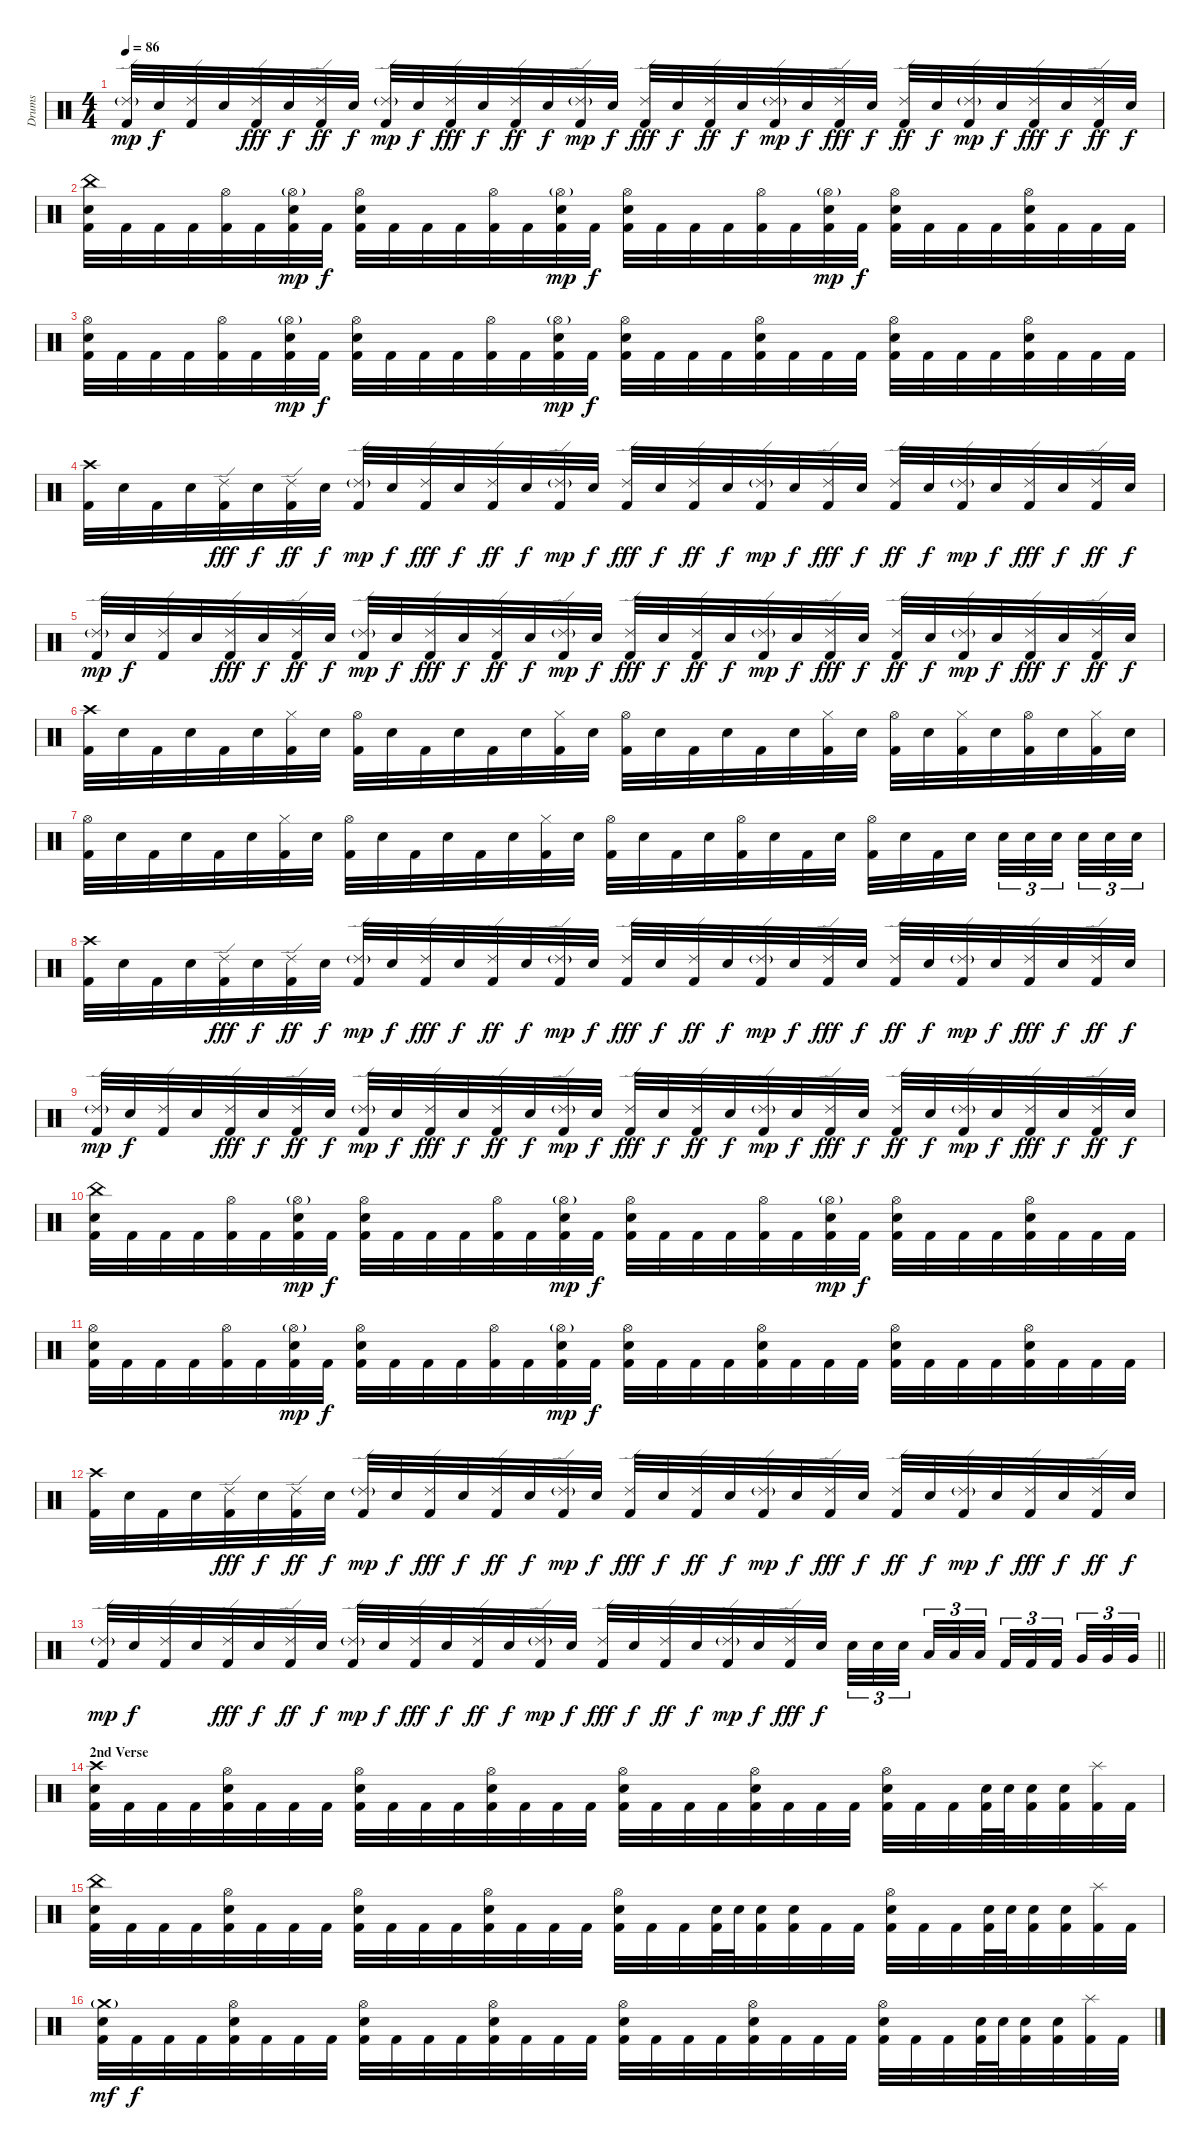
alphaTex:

\track ("Drums" "Drums") {instrument percussion}
\staff {score}
\articulation defaults
\ts (4 4)
\tempo 86
\clef neutral
\ks c
("Ride (edge) 2"{g} "Kick (hit) 2").32{dy mp} "Snare (hit) 2".32{dy f} ("Ride (edge) 2" "Kick (hit) 2").32 "Snare (hit) 2".32 ("Ride (edge) 2" "Kick (hit) 2").32{dy fff} "Snare (hit) 2".32{dy f} ("Ride (edge) 2" "Kick (hit) 2").32{dy ff} "Snare (hit) 2".32{dy f} ("Ride (edge) 2"{g} "Kick (hit) 2").32{dy mp} "Snare (hit) 2".32{dy f} ("Ride (edge) 2" "Kick (hit) 2").32{dy fff} "Snare (hit) 2".32{dy f} ("Ride (edge) 2" "Kick (hit) 2").32{dy ff} "Snare (hit) 2".32{dy f} ("Ride (edge) 2"{g} "Kick (hit) 2").32{dy mp} "Snare (hit) 2".32{dy f} ("Ride (edge) 2" "Kick (hit) 2").32{dy fff} "Snare (hit) 2".32{dy f} ("Ride (edge) 2" "Kick (hit) 2").32{dy ff} "Snare (hit) 2".32{dy f} ("Ride (edge) 2"{g} "Kick (hit) 2").32{dy mp} "Snare (hit) 2".32{dy f} ("Ride (edge) 2" "Kick (hit) 2").32{dy fff} "Snare (hit) 2".32{dy f} ("Ride (edge) 2" "Kick (hit) 2").32{dy ff} "Snare (hit) 2".32{dy f} ("Ride (edge) 2"{g} "Kick (hit) 2").32{dy mp} "Snare (hit) 2".32{dy f} ("Ride (edge) 2" "Kick (hit) 2").32{dy fff} "Snare (hit) 2".32{dy f} ("Ride (edge) 2" "Kick (hit) 2").32{dy ff} "Snare (hit) 2".32{dy f} |
("China (hit)" "Snare (hit) 2" "Kick (hit) 2").32 "Kick (hit) 2".32 "Kick (hit) 2".32 "Kick (hit) 2".32 ("Hi-Hat (open)" "Kick (hit) 2").32 "Kick (hit) 2".32 ("Hi-Hat (open)"{g} "Snare (hit) 2" "Kick (hit) 2").32{dy mp} "Kick (hit) 2".32{dy f} ("Hi-Hat (open)" "Snare (hit) 2" "Kick (hit) 2").32 "Kick (hit) 2".32 "Kick (hit) 2".32 "Kick (hit) 2".32 ("Hi-Hat (open)" "Kick (hit) 2").32 "Kick (hit) 2".32 ("Hi-Hat (open)"{g} "Snare (hit) 2" "Kick (hit) 2").32{dy mp} "Kick (hit) 2".32{dy f} ("Hi-Hat (open)" "Snare (hit) 2" "Kick (hit) 2").32 "Kick (hit) 2".32 "Kick (hit) 2".32 "Kick (hit) 2".32 ("Hi-Hat (open)" "Kick (hit) 2").32 "Kick (hit) 2".32 ("Hi-Hat (open)"{g} "Snare (hit) 2" "Kick (hit) 2").32{dy mp} "Kick (hit) 2".32{dy f} ("Hi-Hat (open)" "Snare (hit) 2" "Kick (hit) 2").32 "Kick (hit) 2".32 "Kick (hit) 2".32 "Kick (hit) 2".32 ("Hi-Hat (open)" "Snare (hit) 2" "Kick (hit) 2").32 "Kick (hit) 2".32 "Kick (hit) 2".32 "Kick (hit) 2".32 |
("Hi-Hat (open)" "Snare (hit) 2" "Kick (hit) 2").32 "Kick (hit) 2".32 "Kick (hit) 2".32 "Kick (hit) 2".32 ("Hi-Hat (open)" "Kick (hit) 2").32 "Kick (hit) 2".32 ("Hi-Hat (open)"{g} "Snare (hit) 2" "Kick (hit) 2").32{dy mp} "Kick (hit) 2".32{dy f} ("Hi-Hat (open)" "Snare (hit) 2" "Kick (hit) 2").32 "Kick (hit) 2".32 "Kick (hit) 2".32 "Kick (hit) 2".32 ("Hi-Hat (open)" "Kick (hit) 2").32 "Kick (hit) 2".32 ("Hi-Hat (open)"{g} "Snare (hit) 2" "Kick (hit) 2").32{dy mp} "Kick (hit) 2".32{dy f} ("Hi-Hat (open)" "Snare (hit) 2" "Kick (hit) 2").32 "Kick (hit) 2".32 "Kick (hit) 2".32 "Kick (hit) 2".32 ("Hi-Hat (open)" "Snare (hit) 2" "Kick (hit) 2").32 "Kick (hit) 2".32 "Kick (hit) 2".32 "Kick (hit) 2".32 ("Hi-Hat (open)" "Snare (hit) 2" "Kick (hit) 2").32 "Kick (hit) 2".32 "Kick (hit) 2".32 "Kick (hit) 2".32 ("Hi-Hat (open)" "Snare (hit) 2" "Kick (hit) 2").32 "Kick (hit) 2".32 "Kick (hit) 2".32 "Kick (hit) 2".32 |
("Crash high (hit)" "Kick (hit) 2").32 "Snare (hit) 2".32 "Kick (hit) 2".32 "Snare (hit) 2".32 ("Ride (edge) 2" "Kick (hit) 2").32{dy fff} "Snare (hit) 2".32{dy f} ("Ride (edge) 2" "Kick (hit) 2").32{dy ff} "Snare (hit) 2".32{dy f} ("Ride (edge) 2"{g} "Kick (hit) 2").32{dy mp} "Snare (hit) 2".32{dy f} ("Ride (edge) 2" "Kick (hit) 2").32{dy fff} "Snare (hit) 2".32{dy f} ("Ride (edge) 2" "Kick (hit) 2").32{dy ff} "Snare (hit) 2".32{dy f} ("Ride (edge) 2"{g} "Kick (hit) 2").32{dy mp} "Snare (hit) 2".32{dy f} ("Ride (edge) 2" "Kick (hit) 2").32{dy fff} "Snare (hit) 2".32{dy f} ("Ride (edge) 2" "Kick (hit) 2").32{dy ff} "Snare (hit) 2".32{dy f} ("Ride (edge) 2"{g} "Kick (hit) 2").32{dy mp} "Snare (hit) 2".32{dy f} ("Ride (edge) 2" "Kick (hit) 2").32{dy fff} "Snare (hit) 2".32{dy f} ("Ride (edge) 2" "Kick (hit) 2").32{dy ff} "Snare (hit) 2".32{dy f} ("Ride (edge) 2"{g} "Kick (hit) 2").32{dy mp} "Snare (hit) 2".32{dy f} ("Ride (edge) 2" "Kick (hit) 2").32{dy fff} "Snare (hit) 2".32{dy f} ("Ride (edge) 2" "Kick (hit) 2").32{dy ff} "Snare (hit) 2".32{dy f} |
("Ride (edge) 2"{g} "Kick (hit) 2").32{dy mp} "Snare (hit) 2".32{dy f} ("Ride (edge) 2" "Kick (hit) 2").32 "Snare (hit) 2".32 ("Ride (edge) 2" "Kick (hit) 2").32{dy fff} "Snare (hit) 2".32{dy f} ("Ride (edge) 2" "Kick (hit) 2").32{dy ff} "Snare (hit) 2".32{dy f} ("Ride (edge) 2"{g} "Kick (hit) 2").32{dy mp} "Snare (hit) 2".32{dy f} ("Ride (edge) 2" "Kick (hit) 2").32{dy fff} "Snare (hit) 2".32{dy f} ("Ride (edge) 2" "Kick (hit) 2").32{dy ff} "Snare (hit) 2".32{dy f} ("Ride (edge) 2"{g} "Kick (hit) 2").32{dy mp} "Snare (hit) 2".32{dy f} ("Ride (edge) 2" "Kick (hit) 2").32{dy fff} "Snare (hit) 2".32{dy f} ("Ride (edge) 2" "Kick (hit) 2").32{dy ff} "Snare (hit) 2".32{dy f} ("Ride (edge) 2"{g} "Kick (hit) 2").32{dy mp} "Snare (hit) 2".32{dy f} ("Ride (edge) 2" "Kick (hit) 2").32{dy fff} "Snare (hit) 2".32{dy f} ("Ride (edge) 2" "Kick (hit) 2").32{dy ff} "Snare (hit) 2".32{dy f} ("Ride (edge) 2"{g} "Kick (hit) 2").32{dy mp} "Snare (hit) 2".32{dy f} ("Ride (edge) 2" "Kick (hit) 2").32{dy fff} "Snare (hit) 2".32{dy f} ("Ride (edge) 2" "Kick (hit) 2").32{dy ff} "Snare (hit) 2".32{dy f} |
("Crash high (hit)" "Kick (hit) 2").32 "Snare (hit) 2".32 "Kick (hit) 2".32 "Snare (hit) 2".32 "Kick (hit) 2".32 "Snare (hit) 2".32 ("Hi-Hat (closed)" "Kick (hit) 2").32 "Snare (hit) 2".32 ("Hi-Hat (open)" "Kick (hit) 2").32 "Snare (hit) 2".32 "Kick (hit) 2".32 "Snare (hit) 2".32 "Kick (hit) 2".32 "Snare (hit) 2".32 ("Hi-Hat (closed)" "Kick (hit) 2").32 "Snare (hit) 2".32 ("Hi-Hat (open)" "Kick (hit) 2").32 "Snare (hit) 2".32 "Kick (hit) 2".32 "Snare (hit) 2".32 "Kick (hit) 2".32 "Snare (hit) 2".32 ("Hi-Hat (closed)" "Kick (hit) 2").32 "Snare (hit) 2".32 ("Hi-Hat (open)" "Kick (hit) 2").32 "Snare (hit) 2".32 ("Hi-Hat (closed)" "Kick (hit) 2").32 "Snare (hit) 2".32 ("Hi-Hat (open)" "Kick (hit) 2").32 "Snare (hit) 2".32 ("Hi-Hat (closed)" "Kick (hit) 2").32 "Snare (hit) 2".32 |
("Hi-Hat (open)" "Kick (hit) 2").32 "Snare (hit) 2".32 "Kick (hit) 2".32 "Snare (hit) 2".32 "Kick (hit) 2".32 "Snare (hit) 2".32 ("Hi-Hat (closed)" "Kick (hit) 2").32 "Snare (hit) 2".32 ("Hi-Hat (open)" "Kick (hit) 2").32 "Snare (hit) 2".32 "Kick (hit) 2".32 "Snare (hit) 2".32 "Kick (hit) 2".32 "Snare (hit) 2".32 ("Hi-Hat (closed)" "Kick (hit) 2").32 "Snare (hit) 2".32 ("Hi-Hat (open)" "Kick (hit) 2").32 "Snare (hit) 2".32 "Kick (hit) 2".32 "Snare (hit) 2".32 ("Hi-Hat (open)" "Kick (hit) 2").32 "Snare (hit) 2".32 "Kick (hit) 2".32 "Snare (hit) 2".32 ("Hi-Hat (open)" "Kick (hit) 2").32 "Snare (hit) 2".32 "Kick (hit) 2".32 "Snare (hit) 2".32{beam splitsecondary} "Snare (hit) 2".32{tu (3 2)} "Snare (hit) 2".32{tu (3 2)} "Snare (hit) 2".32{tu (3 2) beam splitsecondary} "Snare (hit) 2".32{tu (3 2)} "Snare (hit) 2".32{tu (3 2)} "Snare (hit) 2".32{tu (3 2)} |
("Crash high (hit)" "Kick (hit) 2").32 "Snare (hit) 2".32 "Kick (hit) 2".32 "Snare (hit) 2".32 ("Ride (edge) 2" "Kick (hit) 2").32{dy fff} "Snare (hit) 2".32{dy f} ("Ride (edge) 2" "Kick (hit) 2").32{dy ff} "Snare (hit) 2".32{dy f} ("Ride (edge) 2"{g} "Kick (hit) 2").32{dy mp} "Snare (hit) 2".32{dy f} ("Ride (edge) 2" "Kick (hit) 2").32{dy fff} "Snare (hit) 2".32{dy f} ("Ride (edge) 2" "Kick (hit) 2").32{dy ff} "Snare (hit) 2".32{dy f} ("Ride (edge) 2"{g} "Kick (hit) 2").32{dy mp} "Snare (hit) 2".32{dy f} ("Ride (edge) 2" "Kick (hit) 2").32{dy fff} "Snare (hit) 2".32{dy f} ("Ride (edge) 2" "Kick (hit) 2").32{dy ff} "Snare (hit) 2".32{dy f} ("Ride (edge) 2"{g} "Kick (hit) 2").32{dy mp} "Snare (hit) 2".32{dy f} ("Ride (edge) 2" "Kick (hit) 2").32{dy fff} "Snare (hit) 2".32{dy f} ("Ride (edge) 2" "Kick (hit) 2").32{dy ff} "Snare (hit) 2".32{dy f} ("Ride (edge) 2"{g} "Kick (hit) 2").32{dy mp} "Snare (hit) 2".32{dy f} ("Ride (edge) 2" "Kick (hit) 2").32{dy fff} "Snare (hit) 2".32{dy f} ("Ride (edge) 2" "Kick (hit) 2").32{dy ff} "Snare (hit) 2".32{dy f} |
("Ride (edge) 2"{g} "Kick (hit) 2").32{dy mp} "Snare (hit) 2".32{dy f} ("Ride (edge) 2" "Kick (hit) 2").32 "Snare (hit) 2".32 ("Ride (edge) 2" "Kick (hit) 2").32{dy fff} "Snare (hit) 2".32{dy f} ("Ride (edge) 2" "Kick (hit) 2").32{dy ff} "Snare (hit) 2".32{dy f} ("Ride (edge) 2"{g} "Kick (hit) 2").32{dy mp} "Snare (hit) 2".32{dy f} ("Ride (edge) 2" "Kick (hit) 2").32{dy fff} "Snare (hit) 2".32{dy f} ("Ride (edge) 2" "Kick (hit) 2").32{dy ff} "Snare (hit) 2".32{dy f} ("Ride (edge) 2"{g} "Kick (hit) 2").32{dy mp} "Snare (hit) 2".32{dy f} ("Ride (edge) 2" "Kick (hit) 2").32{dy fff} "Snare (hit) 2".32{dy f} ("Ride (edge) 2" "Kick (hit) 2").32{dy ff} "Snare (hit) 2".32{dy f} ("Ride (edge) 2"{g} "Kick (hit) 2").32{dy mp} "Snare (hit) 2".32{dy f} ("Ride (edge) 2" "Kick (hit) 2").32{dy fff} "Snare (hit) 2".32{dy f} ("Ride (edge) 2" "Kick (hit) 2").32{dy ff} "Snare (hit) 2".32{dy f} ("Ride (edge) 2"{g} "Kick (hit) 2").32{dy mp} "Snare (hit) 2".32{dy f} ("Ride (edge) 2" "Kick (hit) 2").32{dy fff} "Snare (hit) 2".32{dy f} ("Ride (edge) 2" "Kick (hit) 2").32{dy ff} "Snare (hit) 2".32{dy f} |
("China (hit)" "Snare (hit) 2" "Kick (hit) 2").32 "Kick (hit) 2".32 "Kick (hit) 2".32 "Kick (hit) 2".32 ("Hi-Hat (open)" "Kick (hit) 2").32 "Kick (hit) 2".32 ("Hi-Hat (open)"{g} "Snare (hit) 2" "Kick (hit) 2").32{dy mp} "Kick (hit) 2".32{dy f} ("Hi-Hat (open)" "Snare (hit) 2" "Kick (hit) 2").32 "Kick (hit) 2".32 "Kick (hit) 2".32 "Kick (hit) 2".32 ("Hi-Hat (open)" "Kick (hit) 2").32 "Kick (hit) 2".32 ("Hi-Hat (open)"{g} "Snare (hit) 2" "Kick (hit) 2").32{dy mp} "Kick (hit) 2".32{dy f} ("Hi-Hat (open)" "Snare (hit) 2" "Kick (hit) 2").32 "Kick (hit) 2".32 "Kick (hit) 2".32 "Kick (hit) 2".32 ("Hi-Hat (open)" "Kick (hit) 2").32 "Kick (hit) 2".32 ("Hi-Hat (open)"{g} "Snare (hit) 2" "Kick (hit) 2").32{dy mp} "Kick (hit) 2".32{dy f} ("Hi-Hat (open)" "Snare (hit) 2" "Kick (hit) 2").32 "Kick (hit) 2".32 "Kick (hit) 2".32 "Kick (hit) 2".32 ("Hi-Hat (open)" "Snare (hit) 2" "Kick (hit) 2").32 "Kick (hit) 2".32 "Kick (hit) 2".32 "Kick (hit) 2".32 |
("Hi-Hat (open)" "Snare (hit) 2" "Kick (hit) 2").32 "Kick (hit) 2".32 "Kick (hit) 2".32 "Kick (hit) 2".32 ("Hi-Hat (open)" "Kick (hit) 2").32 "Kick (hit) 2".32 ("Hi-Hat (open)"{g} "Snare (hit) 2" "Kick (hit) 2").32{dy mp} "Kick (hit) 2".32{dy f} ("Hi-Hat (open)" "Snare (hit) 2" "Kick (hit) 2").32 "Kick (hit) 2".32 "Kick (hit) 2".32 "Kick (hit) 2".32 ("Hi-Hat (open)" "Kick (hit) 2").32 "Kick (hit) 2".32 ("Hi-Hat (open)"{g} "Snare (hit) 2" "Kick (hit) 2").32{dy mp} "Kick (hit) 2".32{dy f} ("Hi-Hat (open)" "Snare (hit) 2" "Kick (hit) 2").32 "Kick (hit) 2".32 "Kick (hit) 2".32 "Kick (hit) 2".32 ("Hi-Hat (open)" "Snare (hit) 2" "Kick (hit) 2").32 "Kick (hit) 2".32 "Kick (hit) 2".32 "Kick (hit) 2".32 ("Hi-Hat (open)" "Snare (hit) 2" "Kick (hit) 2").32 "Kick (hit) 2".32 "Kick (hit) 2".32 "Kick (hit) 2".32 ("Hi-Hat (open)" "Snare (hit) 2" "Kick (hit) 2").32 "Kick (hit) 2".32 "Kick (hit) 2".32 "Kick (hit) 2".32 |
("Crash high (hit)" "Kick (hit) 2").32 "Snare (hit) 2".32 "Kick (hit) 2".32 "Snare (hit) 2".32 ("Ride (edge) 2" "Kick (hit) 2").32{dy fff} "Snare (hit) 2".32{dy f} ("Ride (edge) 2" "Kick (hit) 2").32{dy ff} "Snare (hit) 2".32{dy f} ("Ride (edge) 2"{g} "Kick (hit) 2").32{dy mp} "Snare (hit) 2".32{dy f} ("Ride (edge) 2" "Kick (hit) 2").32{dy fff} "Snare (hit) 2".32{dy f} ("Ride (edge) 2" "Kick (hit) 2").32{dy ff} "Snare (hit) 2".32{dy f} ("Ride (edge) 2"{g} "Kick (hit) 2").32{dy mp} "Snare (hit) 2".32{dy f} ("Ride (edge) 2" "Kick (hit) 2").32{dy fff} "Snare (hit) 2".32{dy f} ("Ride (edge) 2" "Kick (hit) 2").32{dy ff} "Snare (hit) 2".32{dy f} ("Ride (edge) 2"{g} "Kick (hit) 2").32{dy mp} "Snare (hit) 2".32{dy f} ("Ride (edge) 2" "Kick (hit) 2").32{dy fff} "Snare (hit) 2".32{dy f} ("Ride (edge) 2" "Kick (hit) 2").32{dy ff} "Snare (hit) 2".32{dy f} ("Ride (edge) 2"{g} "Kick (hit) 2").32{dy mp} "Snare (hit) 2".32{dy f} ("Ride (edge) 2" "Kick (hit) 2").32{dy fff} "Snare (hit) 2".32{dy f} ("Ride (edge) 2" "Kick (hit) 2").32{dy ff} "Snare (hit) 2".32{dy f} |
\barLineRight lightlight
("Ride (edge) 2"{g} "Kick (hit) 2").32{dy mp} "Snare (hit) 2".32{dy f} ("Ride (edge) 2" "Kick (hit) 2").32 "Snare (hit) 2".32 ("Ride (edge) 2" "Kick (hit) 2").32{dy fff} "Snare (hit) 2".32{dy f} ("Ride (edge) 2" "Kick (hit) 2").32{dy ff} "Snare (hit) 2".32{dy f} ("Ride (edge) 2"{g} "Kick (hit) 2").32{dy mp} "Snare (hit) 2".32{dy f} ("Ride (edge) 2" "Kick (hit) 2").32{dy fff} "Snare (hit) 2".32{dy f} ("Ride (edge) 2" "Kick (hit) 2").32{dy ff} "Snare (hit) 2".32{dy f} ("Ride (edge) 2"{g} "Kick (hit) 2").32{dy mp} "Snare (hit) 2".32{dy f} ("Ride (edge) 2" "Kick (hit) 2").32{dy fff} "Snare (hit) 2".32{dy f} ("Ride (edge) 2" "Kick (hit) 2").32{dy ff} "Snare (hit) 2".32{dy f} ("Ride (edge) 2"{g} "Kick (hit) 2").32{dy mp} "Snare (hit) 2".32{dy f} ("Ride (edge) 2" "Kick (hit) 2").32{dy fff} "Snare (hit) 2".32{dy f} "Snare (hit) 2".32{tu (3 2)} "Snare (hit) 2".32{tu (3 2)} "Snare (hit) 2".32{tu (3 2) beam splitsecondary} "Low Tom (hit)".32{tu (3 2)} "Low Tom (hit)".32{tu (3 2)} "Low Tom (hit)".32{tu (3 2) beam splitsecondary} "Kick (hit) 2".32{tu (3 2)} "Kick (hit) 2".32{tu (3 2)} "Kick (hit) 2".32{tu (3 2) beam splitsecondary} "Very Low Tom (hit)".32{tu (3 2)} "Very Low Tom (hit)".32{tu (3 2)} "Very Low Tom (hit)".32{tu (3 2)} |
\section ("" "2nd Verse")
("Crash high (hit)" "Snare (hit) 2" "Kick (hit) 2").32 "Kick (hit) 2".32 "Kick (hit) 2".32 "Kick (hit) 2".32 ("Hi-Hat (open)" "Snare (hit) 2" "Kick (hit) 2").32 "Kick (hit) 2".32 "Kick (hit) 2".32 "Kick (hit) 2".32 ("Hi-Hat (open)" "Snare (hit) 2" "Kick (hit) 2").32 "Kick (hit) 2".32 "Kick (hit) 2".32 "Kick (hit) 2".32 ("Hi-Hat (open)" "Snare (hit) 2" "Kick (hit) 2").32 "Kick (hit) 2".32 "Kick (hit) 2".32 "Kick (hit) 2".32 ("Hi-Hat (open)" "Snare (hit) 2" "Kick (hit) 2").32 "Kick (hit) 2".32 "Kick (hit) 2".32 "Kick (hit) 2".32 ("Hi-Hat (open)" "Snare (hit) 2" "Kick (hit) 2").32 "Kick (hit) 2".32 "Kick (hit) 2".32 "Kick (hit) 2".32 ("Hi-Hat (open)" "Snare (hit) 2" "Kick (hit) 2").32 "Kick (hit) 2".32 "Kick (hit) 2".32 ("Snare (hit) 2" "Kick (hit) 2").64 "Snare (hit) 2".64 ("Snare (hit) 2" "Kick (hit) 2").32 ("Snare (hit) 2" "Kick (hit) 2").32 ("Splash (hit)" "Kick (hit) 2").32 "Kick (hit) 2".32 |
("China (hit)" "Snare (hit) 2" "Kick (hit) 2").32 "Kick (hit) 2".32 "Kick (hit) 2".32 "Kick (hit) 2".32 ("Hi-Hat (open)" "Snare (hit) 2" "Kick (hit) 2").32 "Kick (hit) 2".32 "Kick (hit) 2".32 "Kick (hit) 2".32 ("Hi-Hat (open)" "Snare (hit) 2" "Kick (hit) 2").32 "Kick (hit) 2".32 "Kick (hit) 2".32 "Kick (hit) 2".32 ("Hi-Hat (open)" "Snare (hit) 2" "Kick (hit) 2").32 "Kick (hit) 2".32 "Kick (hit) 2".32 "Kick (hit) 2".32 ("Hi-Hat (open)" "Snare (hit) 2" "Kick (hit) 2").32 "Kick (hit) 2".32 "Kick (hit) 2".32 ("Snare (hit) 2" "Kick (hit) 2").64 "Snare (hit) 2".64 ("Snare (hit) 2" "Kick (hit) 2").32 ("Snare (hit) 2" "Kick (hit) 2").32 "Kick (hit) 2".32 "Kick (hit) 2".32 ("Hi-Hat (open)" "Snare (hit) 2" "Kick (hit) 2").32 "Kick (hit) 2".32 "Kick (hit) 2".32 ("Snare (hit) 2" "Kick (hit) 2").64 "Snare (hit) 2".64 ("Snare (hit) 2" "Kick (hit) 2").32 ("Snare (hit) 2" "Kick (hit) 2").32 ("Splash (hit)" "Kick (hit) 2").32 "Kick (hit) 2".32 |
("Crash medium (hit)"{g} "Snare (hit) 2" "Kick (hit) 2").32{dy mf} "Kick (hit) 2".32{dy f} "Kick (hit) 2".32 "Kick (hit) 2".32 ("Hi-Hat (open)" "Snare (hit) 2" "Kick (hit) 2").32 "Kick (hit) 2".32 "Kick (hit) 2".32 "Kick (hit) 2".32 ("Hi-Hat (open)" "Snare (hit) 2" "Kick (hit) 2").32 "Kick (hit) 2".32 "Kick (hit) 2".32 "Kick (hit) 2".32 ("Hi-Hat (open)" "Snare (hit) 2" "Kick (hit) 2").32 "Kick (hit) 2".32 "Kick (hit) 2".32 "Kick (hit) 2".32 ("Hi-Hat (open)" "Snare (hit) 2" "Kick (hit) 2").32 "Kick (hit) 2".32 "Kick (hit) 2".32 "Kick (hit) 2".32 ("Hi-Hat (open)" "Snare (hit) 2" "Kick (hit) 2").32 "Kick (hit) 2".32 "Kick (hit) 2".32 "Kick (hit) 2".32 ("Hi-Hat (open)" "Snare (hit) 2" "Kick (hit) 2").32 "Kick (hit) 2".32 "Kick (hit) 2".32 ("Snare (hit) 2" "Kick (hit) 2").64 "Snare (hit) 2".64 ("Snare (hit) 2" "Kick (hit) 2").32 ("Snare (hit) 2" "Kick (hit) 2").32 ("Splash (hit)" "Kick (hit) 2").32 "Kick (hit) 2".32
